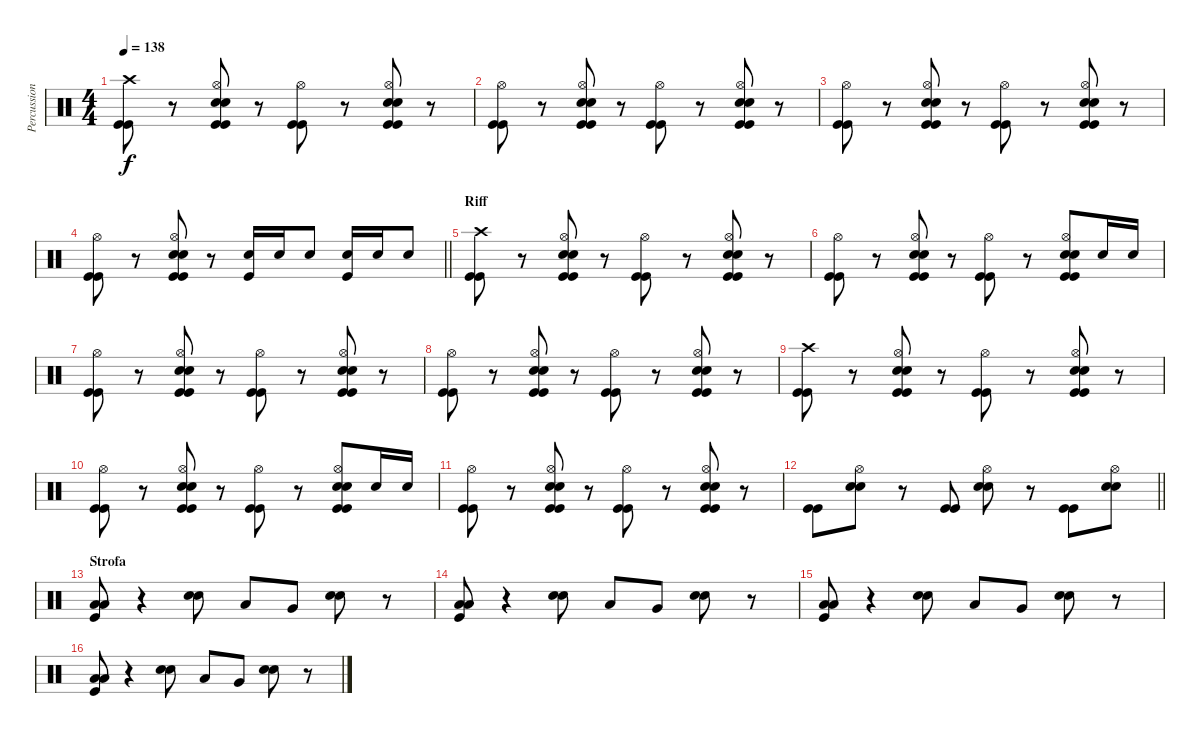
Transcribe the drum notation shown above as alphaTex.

\track ("Percussioni" "Percussion") {instrument percussion}
\staff {score}
\articulation defaults
\ts (4 4)
\tempo 138
\clef neutral
\ks c
("Crash high (hit)" "Kick (hit)" "Kick (hit)").8{dy f} r.8 ("Hi-Hat (open)" "Snare (hit) 2" "Snare (hit) 2" "Kick (hit)" "Kick (hit)").8 r.8 ("Hi-Hat (open)" "Kick (hit)" "Kick (hit)").8 r.8 ("Hi-Hat (open)" "Snare (hit) 2" "Snare (hit) 2" "Kick (hit)" "Kick (hit)").8 r.8 |
("Hi-Hat (open)" "Kick (hit)" "Kick (hit)").8 r.8 ("Hi-Hat (open)" "Snare (hit) 2" "Snare (hit) 2" "Kick (hit)" "Kick (hit)").8 r.8 ("Hi-Hat (open)" "Kick (hit)" "Kick (hit)").8 r.8 ("Hi-Hat (open)" "Snare (hit) 2" "Snare (hit) 2" "Kick (hit)" "Kick (hit)").8 r.8 |
("Hi-Hat (open)" "Kick (hit)" "Kick (hit)").8 r.8 ("Hi-Hat (open)" "Snare (hit) 2" "Snare (hit) 2" "Kick (hit)" "Kick (hit)").8 r.8 ("Hi-Hat (open)" "Kick (hit)" "Kick (hit)").8 r.8 ("Hi-Hat (open)" "Snare (hit) 2" "Snare (hit) 2" "Kick (hit)" "Kick (hit)").8 r.8 |
\barLineRight lightlight
("Hi-Hat (open)" "Kick (hit)" "Kick (hit)").8 r.8 ("Hi-Hat (open)" "Snare (hit) 2" "Snare (hit) 2" "Kick (hit)" "Kick (hit)").8 r.8 ("Snare (hit) 2" "Kick (hit)").16 "Snare (hit) 2".16 "Snare (hit) 2".8 ("Snare (hit) 2" "Kick (hit)").16 "Snare (hit) 2".16 "Snare (hit) 2".8 |
\section ("" "Riff")
("Crash high (hit)" "Kick (hit)" "Kick (hit)").8 r.8 ("Hi-Hat (open)" "Snare (hit) 2" "Snare (hit) 2" "Kick (hit)" "Kick (hit)").8 r.8 ("Hi-Hat (open)" "Kick (hit)" "Kick (hit)").8 r.8 ("Hi-Hat (open)" "Snare (hit) 2" "Snare (hit) 2" "Kick (hit)" "Kick (hit)").8 r.8 |
("Hi-Hat (open)" "Kick (hit)" "Kick (hit)").8 r.8 ("Hi-Hat (open)" "Snare (hit) 2" "Snare (hit) 2" "Kick (hit)" "Kick (hit)").8 r.8 ("Hi-Hat (open)" "Kick (hit)" "Kick (hit)").8 r.8 ("Hi-Hat (open)" "Snare (hit) 2" "Snare (hit) 2" "Kick (hit)" "Kick (hit)").8 "Snare (hit) 2".16 "Snare (hit) 2".16 |
("Hi-Hat (open)" "Kick (hit)" "Kick (hit)").8 r.8 ("Hi-Hat (open)" "Snare (hit) 2" "Snare (hit) 2" "Kick (hit)" "Kick (hit)").8 r.8 ("Hi-Hat (open)" "Kick (hit)" "Kick (hit)").8 r.8 ("Hi-Hat (open)" "Snare (hit) 2" "Snare (hit) 2" "Kick (hit)" "Kick (hit)").8 r.8 |
("Hi-Hat (open)" "Kick (hit)" "Kick (hit)").8 r.8 ("Hi-Hat (open)" "Snare (hit) 2" "Snare (hit) 2" "Kick (hit)" "Kick (hit)").8 r.8 ("Hi-Hat (open)" "Kick (hit)" "Kick (hit)").8 r.8 ("Hi-Hat (open)" "Snare (hit) 2" "Snare (hit) 2" "Kick (hit)" "Kick (hit)").8 r.8 |
("Crash high (hit)" "Kick (hit)" "Kick (hit)").8 r.8 ("Hi-Hat (open)" "Snare (hit) 2" "Snare (hit) 2" "Kick (hit)" "Kick (hit)").8 r.8 ("Hi-Hat (open)" "Kick (hit)" "Kick (hit)").8 r.8 ("Hi-Hat (open)" "Snare (hit) 2" "Snare (hit) 2" "Kick (hit)" "Kick (hit)").8 r.8 |
("Hi-Hat (open)" "Kick (hit)" "Kick (hit)").8 r.8 ("Hi-Hat (open)" "Snare (hit) 2" "Snare (hit) 2" "Kick (hit)" "Kick (hit)").8 r.8 ("Hi-Hat (open)" "Kick (hit)" "Kick (hit)").8 r.8 ("Hi-Hat (open)" "Snare (hit) 2" "Snare (hit) 2" "Kick (hit)" "Kick (hit)").8 "Snare (hit) 2".16 "Snare (hit) 2".16 |
("Hi-Hat (open)" "Kick (hit)" "Kick (hit)").8 r.8 ("Hi-Hat (open)" "Snare (hit) 2" "Snare (hit) 2" "Kick (hit)" "Kick (hit)").8 r.8 ("Hi-Hat (open)" "Kick (hit)" "Kick (hit)").8 r.8 ("Hi-Hat (open)" "Snare (hit) 2" "Snare (hit) 2" "Kick (hit)" "Kick (hit)").8 r.8 |
\barLineRight lightlight
("Kick (hit)" "Kick (hit)").8 ("Hi-Hat (open)" "Snare (hit) 2" "Snare (hit) 2").8 r.8 ("Kick (hit)" "Kick (hit)").8 ("Hi-Hat (open)" "Snare (hit) 2" "Snare (hit) 2").8 r.8 ("Kick (hit)" "Kick (hit)").8 ("Hi-Hat (open)" "Snare (hit) 2" "Snare (hit) 2").8 |
\section ("" "Strofa")
("Low Floor Tom (hit)" "Low Floor Tom (hit)" "Kick (hit)").8 r.4 ("Snare (hit) 2" "Snare (hit) 2").8 "Low Tom (hit)".8 "Very Low Tom (hit)".8 ("Snare (hit) 2" "Snare (hit) 2").8 r.8 |
("Low Floor Tom (hit)" "Low Floor Tom (hit)" "Kick (hit)").8 r.4 ("Snare (hit) 2" "Snare (hit) 2").8 "Low Tom (hit)".8 "Very Low Tom (hit)".8 ("Snare (hit) 2" "Snare (hit) 2").8 r.8 |
("Low Floor Tom (hit)" "Low Floor Tom (hit)" "Kick (hit)").8 r.4 ("Snare (hit) 2" "Snare (hit) 2").8 "Low Tom (hit)".8 "Very Low Tom (hit)".8 ("Snare (hit) 2" "Snare (hit) 2").8 r.8 |
("Low Floor Tom (hit)" "Low Floor Tom (hit)" "Kick (hit)").8 r.4 ("Snare (hit) 2" "Snare (hit) 2").8 "Low Tom (hit)".8 "Very Low Tom (hit)".8 ("Snare (hit) 2" "Snare (hit) 2").8 r.8
